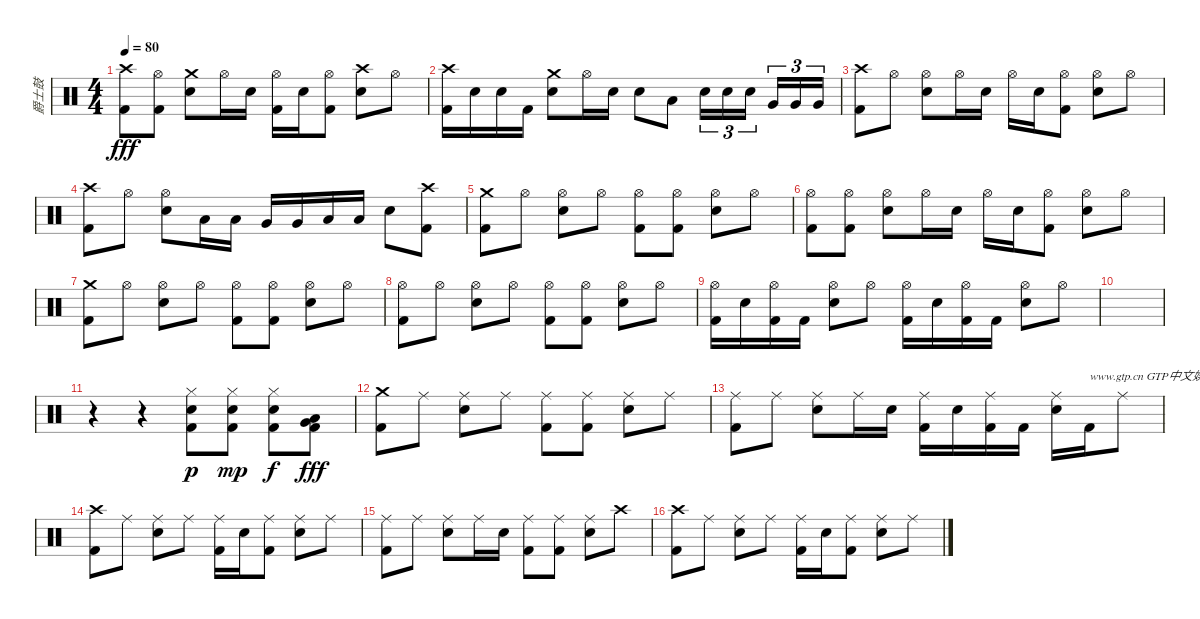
\track ("爵士鼓" "爵士鼓") {instrument percussion}
\staff {score}
\articulation defaults
\ts (4 4)
\tempo 80
\clef neutral
\ks c
("Crash high (hit)" "Kick (hit) 2").8{dy fff} ("Hi-Hat (open)" "Kick (hit) 2").8 ("Crash medium (hit)" "Electric Snare (hit)").8 "Hi-Hat (open)".16 "Electric Snare (hit)".16 ("Hi-Hat (open)" "Kick (hit) 2").16 "Electric Snare (hit)".16 ("Hi-Hat (open)" "Kick (hit) 2").8 ("Crash high (hit)" "Electric Snare (hit)").8 "Hi-Hat (open)".8 |
("Crash high (hit)" "Kick (hit) 2").16 "Electric Snare (hit)".16 "Electric Snare (hit)".16 "Kick (hit) 2".16 ("Crash medium (hit)" "Electric Snare (hit)").8 "Hi-Hat (open)".16 "Electric Snare (hit)".16 "Electric Snare (hit)".8 "Low Tom (hit)".8 "Electric Snare (hit)".16{tu (3 2)} "Electric Snare (hit)".16{tu (3 2)} "Electric Snare (hit)".16{tu (3 2) beam splitsecondary} "Very Low Tom (hit)".16{tu (3 2)} "Very Low Tom (hit)".16{tu (3 2)} "Very Low Tom (hit)".16{tu (3 2)} |
("Crash high (hit)" "Kick (hit) 2").8 "Hi-Hat (open)".8 ("Hi-Hat (open)" "Electric Snare (hit)").8 "Hi-Hat (open)".16 "Electric Snare (hit)".16 "Hi-Hat (open)".16 "Electric Snare (hit)".16 ("Hi-Hat (open)" "Kick (hit) 2").8 ("Hi-Hat (open)" "Electric Snare (hit)").8 "Hi-Hat (open)".8 |
("Crash high (hit)" "Kick (hit) 2").8 "Hi-Hat (open)".8 ("Hi-Hat (open)" "Electric Snare (hit)").8 "Low Tom (hit)".16 "Low Tom (hit)".16 "Very Low Tom (hit)".16 "Very Low Tom (hit)".16 "Low Floor Tom (hit)".16 "Low Floor Tom (hit)".16 "Electric Snare (hit)".8 ("Crash high (hit)" "Kick (hit) 2").8 |
("Crash medium (hit)" "Kick (hit) 2").8 "Hi-Hat (open)".8 ("Hi-Hat (open)" "Electric Snare (hit)").8 "Hi-Hat (open)".8 ("Hi-Hat (open)" "Kick (hit) 2").8 ("Hi-Hat (open)" "Kick (hit) 2").8 ("Hi-Hat (open)" "Electric Snare (hit)").8 "Hi-Hat (open)".8 |
("Hi-Hat (open)" "Kick (hit) 2").8 ("Hi-Hat (open)" "Kick (hit) 2").8 ("Hi-Hat (open)" "Electric Snare (hit)").8 "Hi-Hat (open)".16 "Electric Snare (hit)".16 "Hi-Hat (open)".16 "Electric Snare (hit)".16 ("Hi-Hat (open)" "Kick (hit) 2").8 ("Hi-Hat (open)" "Electric Snare (hit)").8 "Hi-Hat (open)".8 |
("Crash medium (hit)" "Kick (hit) 2").8 "Hi-Hat (open)".8 ("Hi-Hat (open)" "Electric Snare (hit)").8 "Hi-Hat (open)".8 ("Hi-Hat (open)" "Kick (hit) 2").8 ("Hi-Hat (open)" "Kick (hit) 2").8 ("Hi-Hat (open)" "Electric Snare (hit)").8 "Hi-Hat (open)".8 |
("Hi-Hat (open)" "Kick (hit) 2").8 "Hi-Hat (open)".8 ("Hi-Hat (open)" "Electric Snare (hit)").8 "Hi-Hat (open)".8 ("Hi-Hat (open)" "Kick (hit) 2").8 ("Hi-Hat (open)" "Kick (hit) 2").8 ("Hi-Hat (open)" "Electric Snare (hit)").8 "Hi-Hat (open)".8 |
("Hi-Hat (open)" "Kick (hit) 2").16 "Electric Snare (hit)".16 ("Hi-Hat (open)" "Kick (hit) 2").16 "Kick (hit) 2".16 ("Hi-Hat (open)" "Electric Snare (hit)").8 "Hi-Hat (open)".8 ("Hi-Hat (open)" "Kick (hit) 2").16 "Electric Snare (hit)".16 ("Hi-Hat (open)" "Kick (hit) 2").16 "Kick (hit) 2".16 ("Hi-Hat (open)" "Electric Snare (hit)").8 "Hi-Hat (open)".8 |
|
r.4 r.4 ("Hi-Hat (closed)" "Electric Snare (hit)" "Kick (hit) 2").8{dy p} ("Hi-Hat (closed)" "Electric Snare (hit)" "Kick (hit) 2").8{dy mp} ("Hi-Hat (closed)" "Electric Snare (hit)" "Kick (hit) 2").8{dy f} ("Low Tom (hit)" "Very Low Tom (hit)" "Kick (hit) 2").8{dy fff} |
("Crash medium (hit)" "Kick (hit) 2").8 "Ride (middle)".8 ("Ride (middle)" "Electric Snare (hit)").8 "Ride (middle)".8 ("Ride (middle)" "Kick (hit) 2").8 ("Ride (middle)" "Kick (hit) 2").8 ("Ride (middle)" "Electric Snare (hit)").8 "Ride (middle)".8 |
("Ride (middle)" "Kick (hit) 2").8 "Ride (middle)".8 ("Ride (middle)" "Electric Snare (hit)").8 "Ride (middle)".16 "Electric Snare (hit)".16 ("Ride (middle)" "Kick (hit) 2").16 "Electric Snare (hit)".16 ("Ride (middle)" "Kick (hit) 2").16 "Kick (hit) 2".16 ("Ride (middle)" "Electric Snare (hit)").16 "Kick (hit) 2".16{txt "www.gtp.cn GTP中文娱乐网为您提供优秀的谱子"} "Ride (middle)".8 |
("Crash high (hit)" "Kick (hit) 2").8 "Ride (middle)".8 ("Ride (middle)" "Electric Snare (hit)").8 "Ride (middle)".8 ("Ride (middle)" "Kick (hit) 2").16 "Electric Snare (hit)".16 ("Ride (middle)" "Kick (hit) 2").8 ("Ride (middle)" "Electric Snare (hit)").8 "Ride (middle)".8 |
("Ride (middle)" "Kick (hit) 2").8 "Ride (middle)".8 ("Ride (middle)" "Electric Snare (hit)").8 "Ride (middle)".16 "Electric Snare (hit)".16 ("Ride (middle)" "Kick (hit) 2").8 ("Ride (middle)" "Kick (hit) 2").8 ("Ride (middle)" "Electric Snare (hit)").8 "Crash high (hit)".8 |
("Crash high (hit)" "Kick (hit) 2").8 "Ride (middle)".8 ("Ride (middle)" "Electric Snare (hit)").8 "Ride (middle)".8 ("Ride (middle)" "Kick (hit) 2").16 "Electric Snare (hit)".16 ("Ride (middle)" "Kick (hit) 2").8 ("Ride (middle)" "Electric Snare (hit)").8 "Ride (middle)".8
